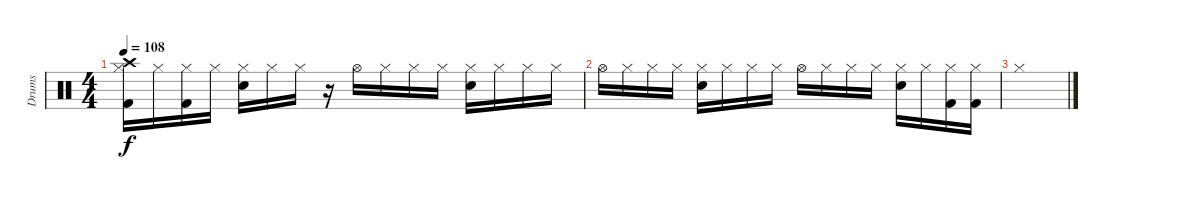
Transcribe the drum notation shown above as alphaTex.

\track ("Drums" "Drums") {instrument percussion}
\staff {score}
\articulation defaults
\ts (4 4)
\tempo 108
\clef neutral
\ks c
("Crash high (hit)" "Hi-Hat (closed)" "Kick (hit) 2").16{dy f} "Hi-Hat (closed)".16 ("Hi-Hat (closed)" "Kick (hit) 2").16 "Hi-Hat (closed)".16 ("Hi-Hat (closed)" "Electric Snare (hit)").16 "Hi-Hat (closed)".16 "Hi-Hat (closed)".16 r.16 "Hi-Hat (open)".16 "Hi-Hat (closed)".16 "Hi-Hat (closed)".16 "Hi-Hat (closed)".16 ("Hi-Hat (closed)" "Electric Snare (hit)").16 "Hi-Hat (closed)".16 "Hi-Hat (closed)".16 "Hi-Hat (closed)".16 |
"Hi-Hat (open)".16 "Hi-Hat (closed)".16 "Hi-Hat (closed)".16 "Hi-Hat (closed)".16 ("Hi-Hat (closed)" "Electric Snare (hit)").16 "Hi-Hat (closed)".16 "Hi-Hat (closed)".16 "Hi-Hat (closed)".16 "Hi-Hat (open)".16 "Hi-Hat (closed)".16 "Hi-Hat (closed)".16 "Hi-Hat (closed)".16 ("Hi-Hat (closed)" "Electric Snare (hit)").16 "Hi-Hat (closed)".16 ("Hi-Hat (closed)" "Kick (hit) 2").16 ("Hi-Hat (closed)" "Kick (hit) 2").16 |
"Hi-Hat (closed)".1
